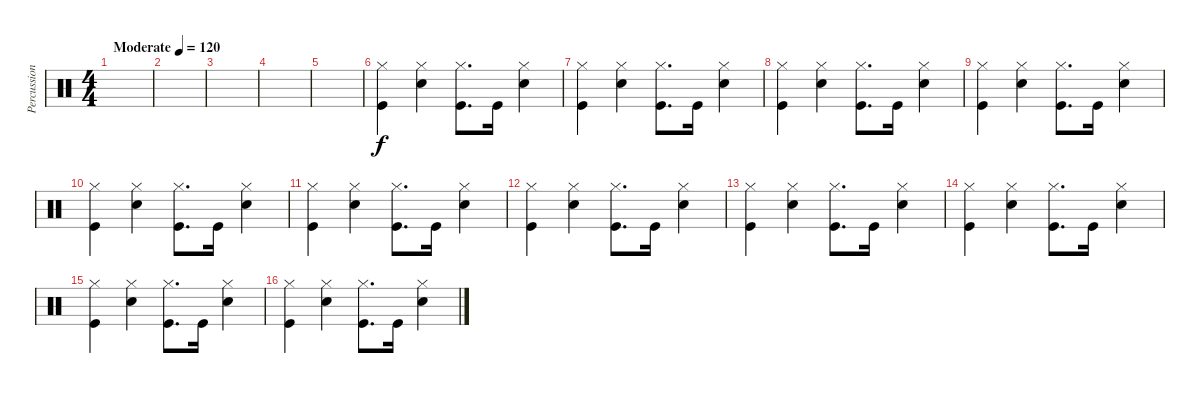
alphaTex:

\track ("Percussion" "Percussion") {instrument percussion}
\staff {score}
\articulation defaults
\ts (4 4)
\tempo (120 "Moderate")
\clef neutral
\ks c
|
|
|
|
|
("Hi-Hat (closed)" "Kick (hit)").4 ("Hi-Hat (closed)" "Snare (hit) 2").4 ("Hi-Hat (closed)" "Kick (hit)").8{d} "Kick (hit)".16 ("Hi-Hat (closed)" "Snare (hit) 2").4 |
("Hi-Hat (closed)" "Kick (hit)").4 ("Hi-Hat (closed)" "Snare (hit) 2").4 ("Hi-Hat (closed)" "Kick (hit)").8{d} "Kick (hit)".16 ("Hi-Hat (closed)" "Snare (hit) 2").4 |
("Hi-Hat (closed)" "Kick (hit)").4 ("Hi-Hat (closed)" "Snare (hit) 2").4 ("Hi-Hat (closed)" "Kick (hit)").8{d} "Kick (hit)".16 ("Hi-Hat (closed)" "Snare (hit) 2").4 |
("Hi-Hat (closed)" "Kick (hit)").4 ("Hi-Hat (closed)" "Snare (hit) 2").4 ("Hi-Hat (closed)" "Kick (hit)").8{d} "Kick (hit)".16 ("Hi-Hat (closed)" "Snare (hit) 2").4 |
("Hi-Hat (closed)" "Kick (hit)").4 ("Hi-Hat (closed)" "Snare (hit) 2").4 ("Hi-Hat (closed)" "Kick (hit)").8{d} "Kick (hit)".16 ("Hi-Hat (closed)" "Snare (hit) 2").4 |
("Hi-Hat (closed)" "Kick (hit)").4 ("Hi-Hat (closed)" "Snare (hit) 2").4 ("Hi-Hat (closed)" "Kick (hit)").8{d} "Kick (hit)".16 ("Hi-Hat (closed)" "Snare (hit) 2").4 |
("Hi-Hat (closed)" "Kick (hit)").4 ("Hi-Hat (closed)" "Snare (hit) 2").4 ("Hi-Hat (closed)" "Kick (hit)").8{d} "Kick (hit)".16 ("Hi-Hat (closed)" "Snare (hit) 2").4 |
("Hi-Hat (closed)" "Kick (hit)").4 ("Hi-Hat (closed)" "Snare (hit) 2").4 ("Hi-Hat (closed)" "Kick (hit)").8{d} "Kick (hit)".16 ("Hi-Hat (closed)" "Snare (hit) 2").4 |
("Hi-Hat (closed)" "Kick (hit)").4 ("Hi-Hat (closed)" "Snare (hit) 2").4 ("Hi-Hat (closed)" "Kick (hit)").8{d} "Kick (hit)".16 ("Hi-Hat (closed)" "Snare (hit) 2").4 |
("Hi-Hat (closed)" "Kick (hit)").4 ("Hi-Hat (closed)" "Snare (hit) 2").4 ("Hi-Hat (closed)" "Kick (hit)").8{d} "Kick (hit)".16 ("Hi-Hat (closed)" "Snare (hit) 2").4 |
("Hi-Hat (closed)" "Kick (hit)").4 ("Hi-Hat (closed)" "Snare (hit) 2").4 ("Hi-Hat (closed)" "Kick (hit)").8{d} "Kick (hit)".16 ("Hi-Hat (closed)" "Snare (hit) 2").4
